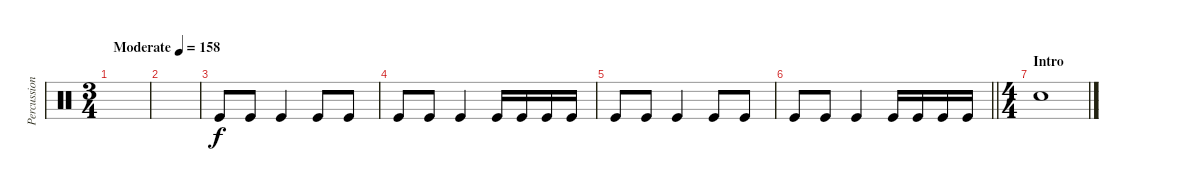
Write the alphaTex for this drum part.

\track ("Percussion" "Percussion") {instrument percussion}
\staff {score}
\articulation defaults
\ts (3 4)
\tempo (158 "Moderate")
\clef neutral
\ks c
|
|
"Kick (hit)".8 "Kick (hit)".8 "Kick (hit)".4 "Kick (hit)".8 "Kick (hit)".8 |
"Kick (hit)".8 "Kick (hit)".8 "Kick (hit)".4 "Kick (hit)".16 "Kick (hit)".16 "Kick (hit)".16 "Kick (hit)".16 |
"Kick (hit)".8 "Kick (hit)".8 "Kick (hit)".4 "Kick (hit)".8 "Kick (hit)".8 |
\barLineRight lightlight "Kick (hit)".8 "Kick (hit)".8 "Kick (hit)".4 "Kick (hit)".16 "Kick (hit)".16 "Kick (hit)".16 "Kick (hit)".16
|
\ts (4 4)
\section ("" "Intro")
"Electric Snare (hit)".1
